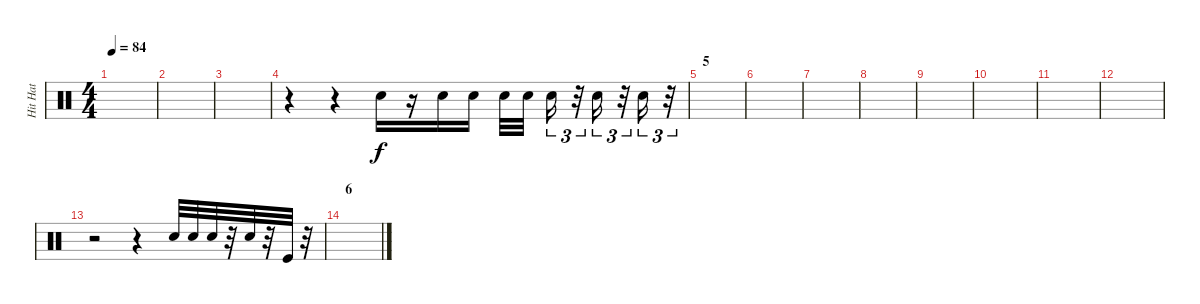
\track ("Hit Hat" "Hit Hat") {instrument percussion}
\staff {score}
\articulation defaults
\ts (4 4)
\tempo 84
\clef neutral
\ks c
|
|
|
r.4 r.4 "Electric Snare (hit)".16 r.16 "Electric Snare (hit)".16 "Snare (hit) 2".16 "Electric Snare (hit)".32 "Electric Snare (hit)".32 "Electric Snare (hit)".16{tu (3 2)} r.32{tu (3 2)} "Electric Snare (hit)".16{tu (3 2)} r.32{tu (3 2)} "Electric Snare (hit)".16{tu (3 2)} r.32{tu (3 2)} |
\section ("" "5")
|
|
|
|
|
|
|
|
r.2 r.4 "Electric Snare (hit)".32 "Electric Snare (hit)".32 "Snare (hit) 2".32 r.32 "Electric Snare (hit)".32 r.32 "Kick (hit)".32 r.32 |
\section ("" "6")
